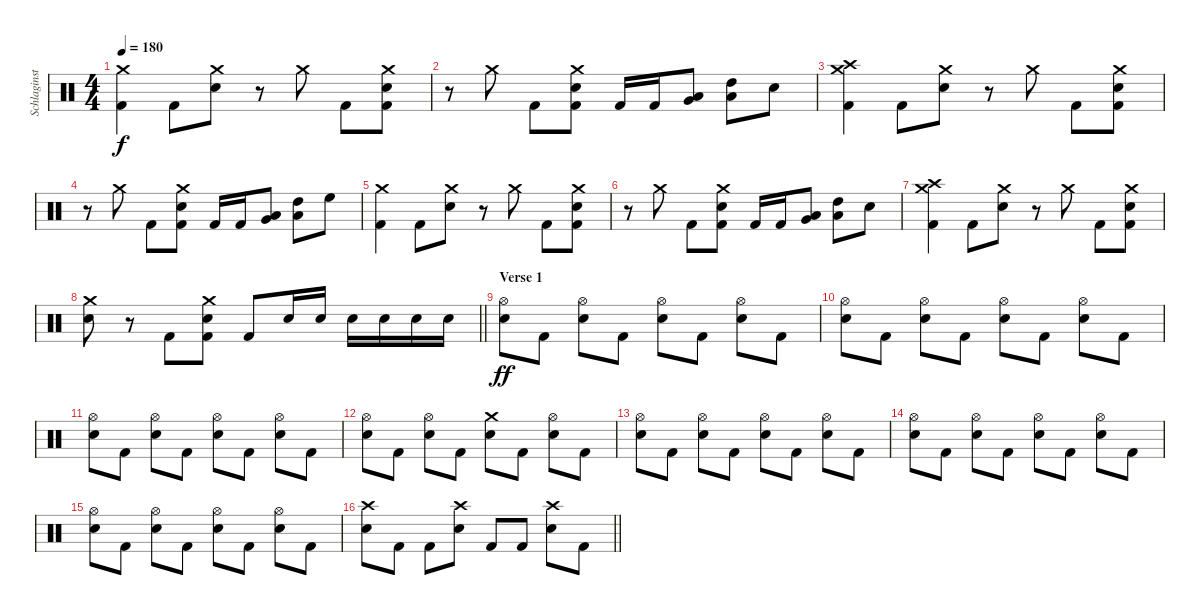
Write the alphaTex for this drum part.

\track ("Schlaginstrumente - Auswahl" "Schlaginst") {instrument percussion}
\staff {score}
\articulation defaults
\ts (4 4)
\section ("" "")
\tempo 180
\clef neutral
\ks c
("Crash medium (hit)" "Kick (hit) 2").4{dy f} "Kick (hit) 2".8 ("Crash medium (hit)" "Electric Snare (hit)").8 r.8 "Crash medium (hit)".8 "Kick (hit) 2".8 ("Crash medium (hit)" "Electric Snare (hit)" "Kick (hit) 2").8 |
r.8 "Crash medium (hit)".8 "Kick (hit) 2".8 ("Crash medium (hit)" "Electric Snare (hit)" "Kick (hit) 2").8 "Kick (hit) 2".16 "Kick (hit) 2".16 ("Very Low Tom (hit)" "Low Tom (hit)").8 ("High Tom (hit)" "Low Tom (hit)").8 "Electric Snare (hit)".8 |
("Crash medium (hit)" "Crash high (hit)" "Kick (hit) 2").4 "Kick (hit) 2".8 ("Crash medium (hit)" "Electric Snare (hit)").8 r.8 "Crash medium (hit)".8 "Kick (hit) 2".8 ("Crash medium (hit)" "Electric Snare (hit)" "Kick (hit) 2").8 |
r.8 "Crash medium (hit)".8 "Kick (hit) 2".8 ("Crash medium (hit)" "Electric Snare (hit)" "Kick (hit) 2").8 "Kick (hit) 2".16 "Kick (hit) 2".16 ("Very Low Tom (hit)" "Low Tom (hit)").8 ("High Tom (hit)" "Low Tom (hit)").8 "High Floor Tom (hit)".8 |
("Crash medium (hit)" "Kick (hit) 2").4 "Kick (hit) 2".8 ("Crash medium (hit)" "Electric Snare (hit)").8 r.8 "Crash medium (hit)".8 "Kick (hit) 2".8 ("Crash medium (hit)" "Electric Snare (hit)" "Kick (hit) 2").8 |
r.8 "Crash medium (hit)".8 "Kick (hit) 2".8 ("Crash medium (hit)" "Electric Snare (hit)" "Kick (hit) 2").8 "Kick (hit) 2".16 "Kick (hit) 2".16 ("Very Low Tom (hit)" "Low Tom (hit)").8 ("High Tom (hit)" "Low Tom (hit)").8 "Electric Snare (hit)".8 |
("Crash medium (hit)" "Crash high (hit)" "Kick (hit) 2").4 "Kick (hit) 2".8 ("Crash medium (hit)" "Electric Snare (hit)").8 r.8 "Crash medium (hit)".8 "Kick (hit) 2".8 ("Crash medium (hit)" "Electric Snare (hit)" "Kick (hit) 2").8 |
\barLineRight lightlight
("Crash medium (hit)" "Electric Snare (hit)").8 r.8 "Kick (hit) 2".8 ("Crash medium (hit)" "Electric Snare (hit)" "Kick (hit) 2").8 "Kick (hit) 2".8 "Electric Snare (hit)".16 "Electric Snare (hit)".16 "Electric Snare (hit)".16 "Electric Snare (hit)".16 "Electric Snare (hit)".16 "Electric Snare (hit)".16 |
\section ("" "Verse 1")
("Hi-Hat (open)" "Electric Snare (hit)").8{dy ff} "Kick (hit) 2".8 ("Hi-Hat (open)" "Electric Snare (hit)").8 "Kick (hit) 2".8 ("Hi-Hat (open)" "Electric Snare (hit)").8 "Kick (hit) 2".8 ("Hi-Hat (open)" "Electric Snare (hit)").8 "Kick (hit) 2".8 |
("Hi-Hat (open)" "Electric Snare (hit)").8 "Kick (hit) 2".8 ("Hi-Hat (open)" "Electric Snare (hit)").8 "Kick (hit) 2".8 ("Hi-Hat (open)" "Electric Snare (hit)").8 "Kick (hit) 2".8 ("Hi-Hat (open)" "Electric Snare (hit)").8 "Kick (hit) 2".8 |
("Hi-Hat (open)" "Electric Snare (hit)").8 "Kick (hit) 2".8 ("Hi-Hat (open)" "Electric Snare (hit)").8 "Kick (hit) 2".8 ("Hi-Hat (open)" "Electric Snare (hit)").8 "Kick (hit) 2".8 ("Hi-Hat (open)" "Electric Snare (hit)").8 "Kick (hit) 2".8 |
("Hi-Hat (open)" "Electric Snare (hit)").8 "Kick (hit) 2".8 ("Hi-Hat (open)" "Electric Snare (hit)").8 "Kick (hit) 2".8 ("Crash medium (hit)" "Electric Snare (hit)").8 "Kick (hit) 2".8 ("Hi-Hat (open)" "Electric Snare (hit)").8 "Kick (hit) 2".8 |
("Hi-Hat (open)" "Electric Snare (hit)").8 "Kick (hit) 2".8 ("Hi-Hat (open)" "Electric Snare (hit)").8 "Kick (hit) 2".8 ("Hi-Hat (open)" "Electric Snare (hit)").8 "Kick (hit) 2".8 ("Hi-Hat (open)" "Electric Snare (hit)").8 "Kick (hit) 2".8 |
("Hi-Hat (open)" "Electric Snare (hit)").8 "Kick (hit) 2".8 ("Hi-Hat (open)" "Electric Snare (hit)").8 "Kick (hit) 2".8 ("Hi-Hat (open)" "Electric Snare (hit)").8 "Kick (hit) 2".8 ("Hi-Hat (open)" "Electric Snare (hit)").8 "Kick (hit) 2".8 |
("Hi-Hat (open)" "Electric Snare (hit)").8 "Kick (hit) 2".8 ("Hi-Hat (open)" "Electric Snare (hit)").8 "Kick (hit) 2".8 ("Hi-Hat (open)" "Electric Snare (hit)").8 "Kick (hit) 2".8 ("Hi-Hat (open)" "Electric Snare (hit)").8 "Kick (hit) 2".8 |
\barLineRight lightlight
("Crash high (hit)" "Electric Snare (hit)").8 "Kick (hit) 2".8 "Kick (hit) 2".8 ("Crash high (hit)" "Electric Snare (hit)").8 "Kick (hit) 2".8 "Kick (hit) 2".8 ("Crash high (hit)" "Electric Snare (hit)").8 "Kick (hit) 2".8
